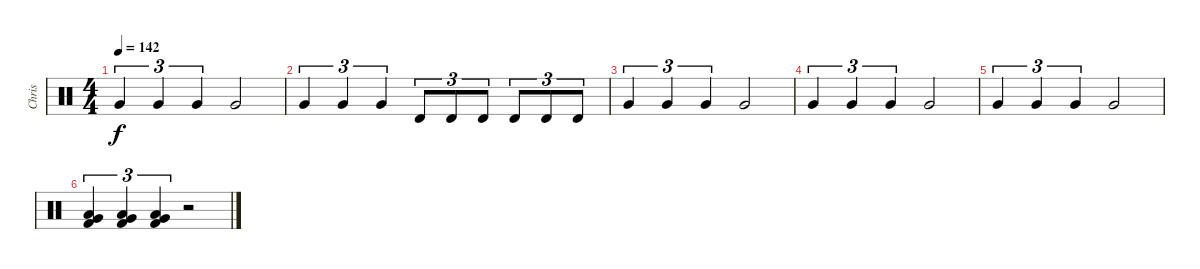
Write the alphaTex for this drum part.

\track ("Chris" "Chris") {instrument percussion}
\staff {score}
\articulation defaults
\ts (4 4)
\tempo 142
\clef neutral
\ks c "Very Low Tom (hit)".4{tu (3 2) dy f} "Very Low Tom (hit)".4{tu (3 2)} "Very Low Tom (hit)".4{tu (3 2)} "Very Low Tom (hit)".2
|
"Very Low Tom (hit)".4{tu (3 2)} "Very Low Tom (hit)".4{tu (3 2)} "Very Low Tom (hit)".4{tu (3 2)} "Timbale high (hit)".8{tu (3 2)} "Timbale high (hit)".8{tu (3 2)} "Timbale high (hit)".8{tu (3 2)} "Timbale high (hit)".8{tu (3 2)} "Timbale high (hit)".8{tu (3 2)} "Timbale high (hit)".8{tu (3 2)} |
"Very Low Tom (hit)".4{tu (3 2)} "Very Low Tom (hit)".4{tu (3 2)} "Very Low Tom (hit)".4{tu (3 2)} "Very Low Tom (hit)".2 |
"Very Low Tom (hit)".4{tu (3 2)} "Very Low Tom (hit)".4{tu (3 2)} "Very Low Tom (hit)".4{tu (3 2)} "Very Low Tom (hit)".2 |
"Very Low Tom (hit)".4{tu (3 2)} "Very Low Tom (hit)".4{tu (3 2)} "Very Low Tom (hit)".4{tu (3 2)} "Very Low Tom (hit)".2 |
("Very Low Tom (hit)" "Low Floor Tom (hit)" "Kick (hit) 2").4{tu (3 2)} ("Very Low Tom (hit)" "Low Floor Tom (hit)" "Kick (hit) 2").4{tu (3 2)} ("Very Low Tom (hit)" "Low Floor Tom (hit)" "Kick (hit) 2").4{tu (3 2)} r.2
